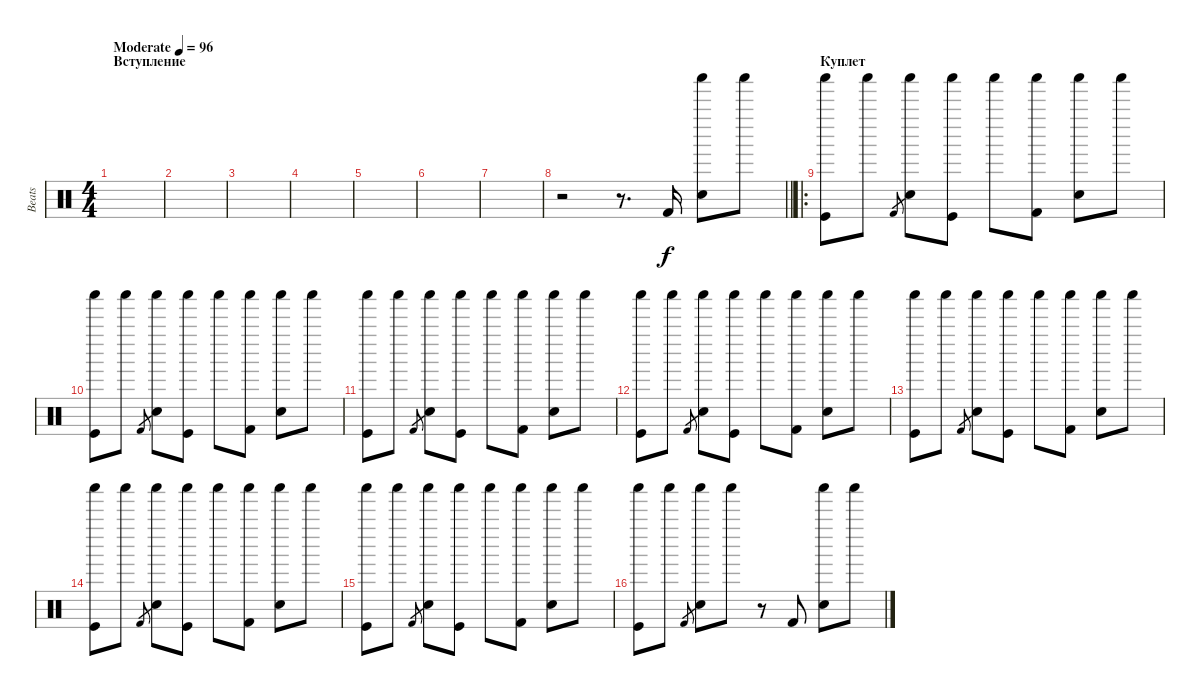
\track ("Beats" "Beats") {instrument percussion}
\staff {score}
\articulation defaults
\ts (4 4)
\section ("" "Вступление ")
\tempo (96 "Moderate")
\clef neutral
\ks c
|
|
|
|
|
|
|
\barLineRight lightlight
r.2 r.8{d} "Kick (hit) 2".16 ("Shaker (hit)" "Snare (hit) 2").8 "Shaker (hit)".8 |
\ro
\section ("" "Куплет ")
("Shaker (hit)" "Kick (hit)").8 "Shaker (hit)".8 "Kick (hit) 2".8{gr} ("Shaker (hit)" "Snare (hit) 2").8 ("Shaker (hit)" "Kick (hit)").8 "Shaker (hit)".8 ("Shaker (hit)" "Kick (hit) 2").8 ("Shaker (hit)" "Snare (hit) 2").8 "Shaker (hit)".8 |
("Shaker (hit)" "Kick (hit)").8 "Shaker (hit)".8 "Kick (hit) 2".8{gr} ("Shaker (hit)" "Snare (hit) 2").8 ("Shaker (hit)" "Kick (hit)").8 "Shaker (hit)".8 ("Shaker (hit)" "Kick (hit) 2").8 ("Shaker (hit)" "Snare (hit) 2").8 "Shaker (hit)".8 |
("Shaker (hit)" "Kick (hit)").8 "Shaker (hit)".8 "Kick (hit) 2".8{gr} ("Shaker (hit)" "Snare (hit) 2").8 ("Shaker (hit)" "Kick (hit)").8 "Shaker (hit)".8 ("Shaker (hit)" "Kick (hit) 2").8 ("Shaker (hit)" "Snare (hit) 2").8 "Shaker (hit)".8 |
("Shaker (hit)" "Kick (hit)").8 "Shaker (hit)".8 "Kick (hit) 2".8{gr} ("Shaker (hit)" "Snare (hit) 2").8 ("Shaker (hit)" "Kick (hit)").8 "Shaker (hit)".8 ("Shaker (hit)" "Kick (hit) 2").8 ("Shaker (hit)" "Snare (hit) 2").8 "Shaker (hit)".8 |
("Shaker (hit)" "Kick (hit)").8 "Shaker (hit)".8 "Kick (hit) 2".8{gr} ("Shaker (hit)" "Snare (hit) 2").8 ("Shaker (hit)" "Kick (hit)").8 "Shaker (hit)".8 ("Shaker (hit)" "Kick (hit) 2").8 ("Shaker (hit)" "Snare (hit) 2").8 "Shaker (hit)".8 |
("Shaker (hit)" "Kick (hit)").8 "Shaker (hit)".8 "Kick (hit) 2".8{gr} ("Shaker (hit)" "Snare (hit) 2").8 ("Shaker (hit)" "Kick (hit)").8 "Shaker (hit)".8 ("Shaker (hit)" "Kick (hit) 2").8 ("Shaker (hit)" "Snare (hit) 2").8 "Shaker (hit)".8 |
("Shaker (hit)" "Kick (hit)").8 "Shaker (hit)".8 "Kick (hit) 2".8{gr} ("Shaker (hit)" "Snare (hit) 2").8 ("Shaker (hit)" "Kick (hit)").8 "Shaker (hit)".8 ("Shaker (hit)" "Kick (hit) 2").8 ("Shaker (hit)" "Snare (hit) 2").8 "Shaker (hit)".8 |
("Shaker (hit)" "Kick (hit)").8 "Shaker (hit)".8 "Kick (hit) 2".8{gr} ("Shaker (hit)" "Snare (hit) 2").8 "Shaker (hit)".8 r.8 "Kick (hit) 2".8 ("Shaker (hit)" "Snare (hit) 2").8 "Shaker (hit)".8
